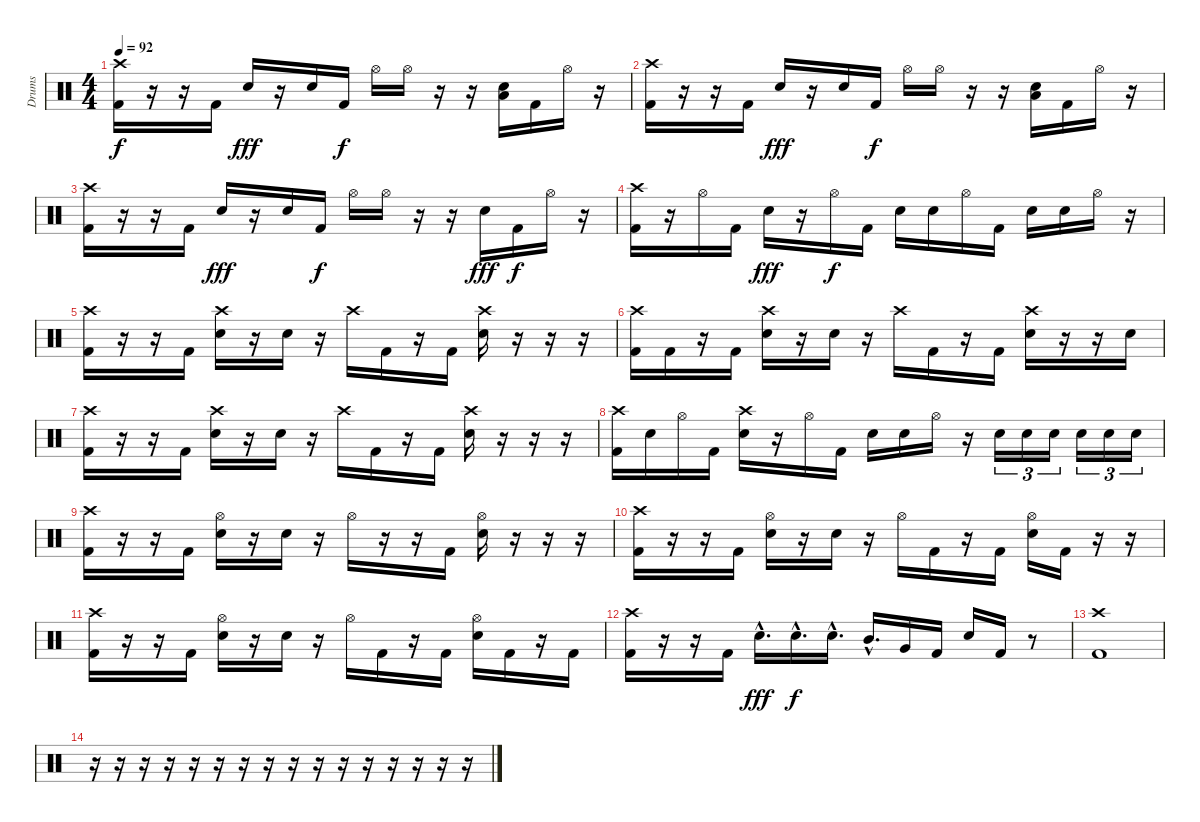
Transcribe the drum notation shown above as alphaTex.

\track ("Drums" "Drums") {instrument percussion}
\staff {score}
\articulation defaults
\ts (4 4)
\tempo 92
\clef neutral
\ks c
("Kick (hit) 2" "Crash high (hit)").16{dy f} r.16 r.16 "Kick (hit) 2".16 "Electric Snare (hit)".16{dy fff} r.16 "Electric Snare (hit)".16 "Kick (hit) 2".16{dy f} "Hi-Hat (open)".16 "Hi-Hat (open)".16 r.16 r.16 ("Electric Snare (hit)" "Low Tom (hit)").16 "Kick (hit) 2".16 "Hi-Hat (open)".16 r.16 |
("Kick (hit) 2" "Crash high (hit)").16 r.16 r.16 "Kick (hit) 2".16 "Electric Snare (hit)".16{dy fff} r.16 "Electric Snare (hit)".16 "Kick (hit) 2".16{dy f} "Hi-Hat (open)".16 "Hi-Hat (open)".16 r.16 r.16 ("Electric Snare (hit)" "Low Tom (hit)").16 "Kick (hit) 2".16 "Hi-Hat (open)".16 r.16 |
("Kick (hit) 2" "Crash high (hit)").16 r.16 r.16 "Kick (hit) 2".16 "Electric Snare (hit)".16{dy fff} r.16 "Electric Snare (hit)".16 "Kick (hit) 2".16{dy f} "Hi-Hat (open)".16 "Hi-Hat (open)".16 r.16 r.16 "Electric Snare (hit)".16{dy fff} "Kick (hit) 2".16{dy f} "Hi-Hat (open)".16 r.16 |
("Kick (hit) 2" "Crash high (hit)").16 r.16 "Hi-Hat (open)".16 "Kick (hit) 2".16 "Electric Snare (hit)".16{dy fff} r.16 "Hi-Hat (open)".16{dy f} "Kick (hit) 2".16 "Electric Snare (hit)".16 "Electric Snare (hit)".16 "Hi-Hat (open)".16 "Kick (hit) 2".16 "Electric Snare (hit)".16 "Electric Snare (hit)".16 "Hi-Hat (open)".16 r.16 |
("Kick (hit) 2" "Crash high (hit)").16 r.16 r.16 "Kick (hit) 2".16 ("Crash high (hit)" "Electric Snare (hit)").16 r.16 "Electric Snare (hit)".16 r.16 "Crash high (hit)".16 "Kick (hit) 2".16 r.16 "Kick (hit) 2".16 ("Crash high (hit)" "Electric Snare (hit)").16 r.16 r.16 r.16 |
("Kick (hit) 2" "Crash high (hit)").16 "Kick (hit) 2".16 r.16 "Kick (hit) 2".16 ("Crash high (hit)" "Electric Snare (hit)").16 r.16 "Electric Snare (hit)".16 r.16 "Crash high (hit)".16 "Kick (hit) 2".16 r.16 "Kick (hit) 2".16 ("Crash high (hit)" "Electric Snare (hit)").16 r.16 r.16 "Electric Snare (hit)".16 |
("Kick (hit) 2" "Crash high (hit)").16 r.16 r.16 "Kick (hit) 2".16 ("Crash high (hit)" "Electric Snare (hit)").16 r.16 "Electric Snare (hit)".16 r.16 "Crash high (hit)".16 "Kick (hit) 2".16 r.16 "Kick (hit) 2".16 ("Crash high (hit)" "Electric Snare (hit)").16 r.16 r.16 r.16 |
("Kick (hit) 2" "Crash high (hit)").16 "Electric Snare (hit)".16 "Hi-Hat (open)".16 "Kick (hit) 2".16 ("Crash high (hit)" "Electric Snare (hit)").16 r.16 "Hi-Hat (open)".16 "Kick (hit) 2".16 "Electric Snare (hit)".16 "Electric Snare (hit)".16 "Hi-Hat (open)".16 r.16 "Electric Snare (hit)".16{tu (3 2)} "Electric Snare (hit)".16{tu (3 2)} "Electric Snare (hit)".16{tu (3 2)} "Electric Snare (hit)".16{tu (3 2)} "Electric Snare (hit)".16{tu (3 2)} "Electric Snare (hit)".16{tu (3 2)} |
("Kick (hit) 2" "Crash high (hit)").16 r.16 r.16 "Kick (hit) 2".16 ("Hi-Hat (open)" "Electric Snare (hit)").16 r.16 "Electric Snare (hit)".16 r.16 "Hi-Hat (open)".16 r.16 r.16 "Kick (hit) 2".16 ("Hi-Hat (open)" "Electric Snare (hit)").16 r.16 r.16 r.16 |
("Kick (hit) 2" "Crash high (hit)").16 r.16 r.16 "Kick (hit) 2".16 ("Hi-Hat (open)" "Electric Snare (hit)").16 r.16 "Electric Snare (hit)".16 r.16 "Hi-Hat (open)".16 "Kick (hit) 2".16 r.16 "Kick (hit) 2".16 ("Hi-Hat (open)" "Electric Snare (hit)").16 "Kick (hit) 2".16 r.16 r.16 |
("Kick (hit) 2" "Crash high (hit)").16 r.16 r.16 "Kick (hit) 2".16 ("Hi-Hat (open)" "Electric Snare (hit)").16 r.16 "Electric Snare (hit)".16 r.16 "Hi-Hat (open)".16 "Kick (hit) 2".16 r.16 "Kick (hit) 2".16 ("Hi-Hat (open)" "Electric Snare (hit)").16 "Kick (hit) 2".16 r.16 "Kick (hit) 2".16 |
("Kick (hit) 2" "Crash high (hit)").16 r.16 r.16 "Kick (hit) 2".16 "Electric Snare (hit)"{hac}.16{d dy fff} "Electric Snare (hit)"{hac}.16{d dy f} "Electric Snare (hit)"{hac}.16{d} "Mid Tom (hit)"{hac}.16{d} "Very Low Tom (hit)".16 "Kick (hit) 2".16 "Electric Snare (hit)".16 "Kick (hit) 2".16 r.8 |
("Kick (hit) 2" "Crash high (hit)").1 |
r.16 r.16 r.16 r.16 r.16 r.16 r.16 r.16 r.16 r.16 r.16 r.16 r.16 r.16 r.16 r.16
